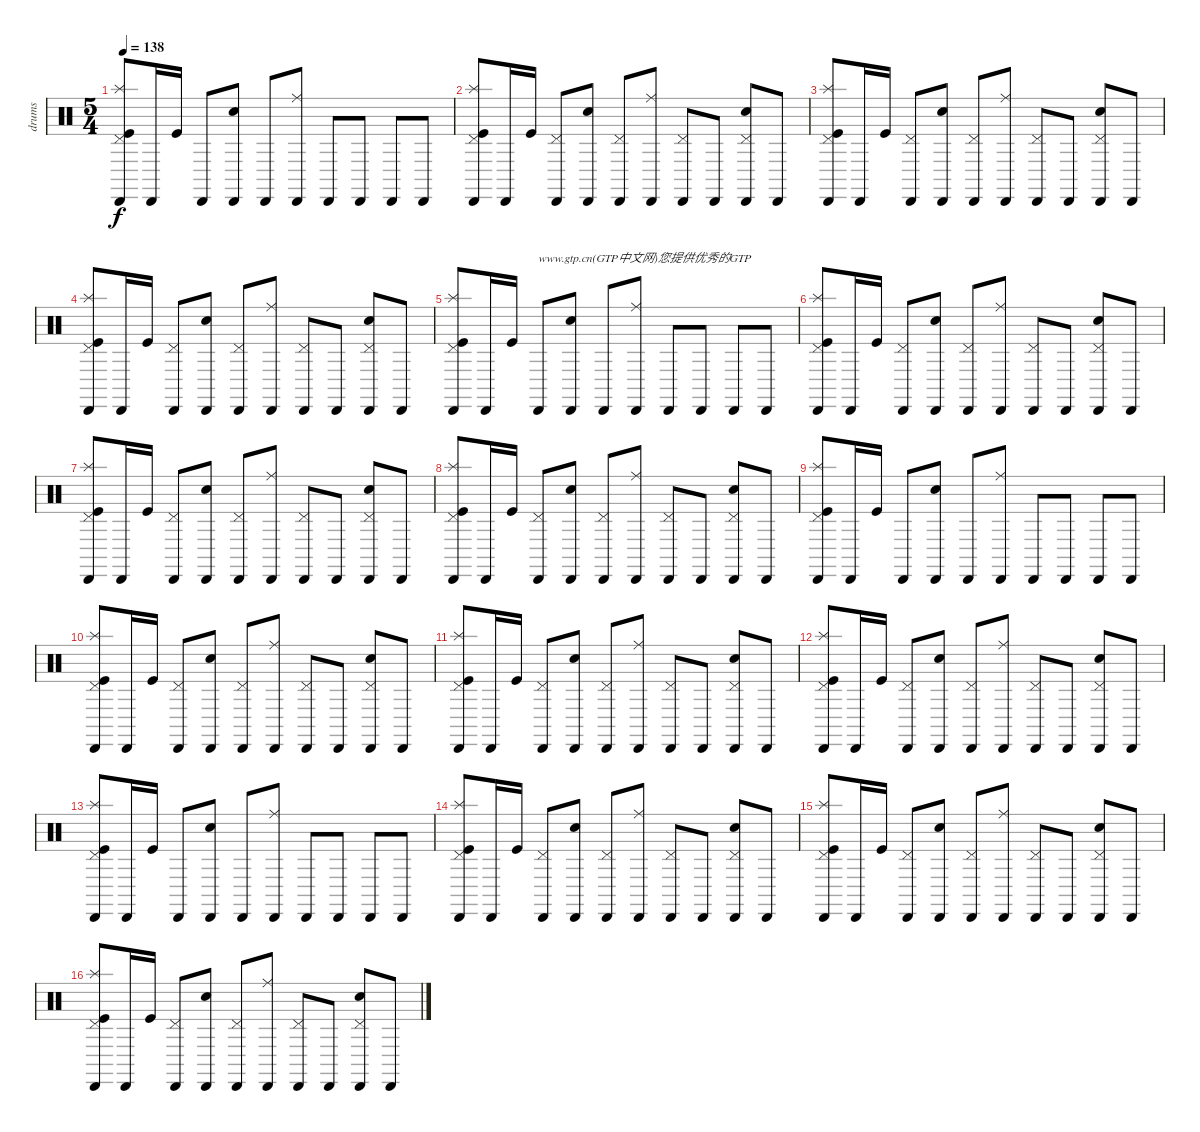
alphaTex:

\track ("drums" "drums") {instrument percussion}
\staff {score}
\articulation defaults
\ts (5 4)
\tempo 138
\clef neutral
\ks c
("Pedal Hi-Hat (hit)" "Splash (hit)" "Kick (hit)" "Cabasa (hit)").8{dy f} "Cabasa (hit)".16 "Kick (hit)".16 "Cabasa (hit)".8 ("Snare (hit) 2" "Cabasa (hit)").8 "Cabasa (hit)".8 ("Ride (middle)" "Cabasa (hit)").8 "Cabasa (hit)".8 "Cabasa (hit)".8 "Cabasa (hit)".8 "Cabasa (hit)".8 |
("Cabasa (hit)" "Kick (hit)" "Pedal Hi-Hat (hit)" "Splash (hit)").8 "Cabasa (hit)".16 "Kick (hit)".16 ("Pedal Hi-Hat (hit)" "Cabasa (hit)").8 ("Snare (hit) 2" "Cabasa (hit)").8 ("Pedal Hi-Hat (hit)" "Cabasa (hit)").8 ("Ride (middle)" "Cabasa (hit)").8 ("Pedal Hi-Hat (hit)" "Cabasa (hit)").8 "Cabasa (hit)".8 ("Snare (hit) 2" "Pedal Hi-Hat (hit)" "Cabasa (hit)").8 "Cabasa (hit)".8 |
("Pedal Hi-Hat (hit)" "Splash (hit)" "Kick (hit)" "Cabasa (hit)").8 "Cabasa (hit)".16 "Kick (hit)".16 ("Pedal Hi-Hat (hit)" "Cabasa (hit)").8 ("Snare (hit) 2" "Cabasa (hit)").8 ("Pedal Hi-Hat (hit)" "Cabasa (hit)").8 ("Ride (middle)" "Cabasa (hit)").8 ("Pedal Hi-Hat (hit)" "Cabasa (hit)").8 "Cabasa (hit)".8 ("Snare (hit) 2" "Pedal Hi-Hat (hit)" "Cabasa (hit)").8 "Cabasa (hit)".8 |
("Kick (hit)" "Pedal Hi-Hat (hit)" "Splash (hit)" "Cabasa (hit)").8 "Cabasa (hit)".16 "Kick (hit)".16 ("Pedal Hi-Hat (hit)" "Cabasa (hit)").8 ("Snare (hit) 2" "Cabasa (hit)").8 ("Pedal Hi-Hat (hit)" "Cabasa (hit)").8 ("Ride (middle)" "Cabasa (hit)").8 ("Pedal Hi-Hat (hit)" "Cabasa (hit)").8 "Cabasa (hit)".8 ("Snare (hit) 2" "Pedal Hi-Hat (hit)" "Cabasa (hit)").8 "Cabasa (hit)".8 |
("Pedal Hi-Hat (hit)" "Splash (hit)" "Kick (hit)" "Cabasa (hit)").8 "Cabasa (hit)".16 "Kick (hit)".16 "Cabasa (hit)".8{txt "www.gtp.cn(GTP中文网)您提供优秀的GTP"} ("Snare (hit) 2" "Cabasa (hit)").8 "Cabasa (hit)".8 ("Ride (middle)" "Cabasa (hit)").8 "Cabasa (hit)".8 "Cabasa (hit)".8 "Cabasa (hit)".8 "Cabasa (hit)".8 |
("Kick (hit)" "Pedal Hi-Hat (hit)" "Splash (hit)" "Cabasa (hit)").8 "Cabasa (hit)".16 "Kick (hit)".16 ("Pedal Hi-Hat (hit)" "Cabasa (hit)").8 ("Snare (hit) 2" "Cabasa (hit)").8 ("Pedal Hi-Hat (hit)" "Cabasa (hit)").8 ("Ride (middle)" "Cabasa (hit)").8 ("Pedal Hi-Hat (hit)" "Cabasa (hit)").8 "Cabasa (hit)".8 ("Snare (hit) 2" "Pedal Hi-Hat (hit)" "Cabasa (hit)").8 "Cabasa (hit)".8 |
("Pedal Hi-Hat (hit)" "Splash (hit)" "Kick (hit)" "Cabasa (hit)").8 "Cabasa (hit)".16 "Kick (hit)".16 ("Pedal Hi-Hat (hit)" "Cabasa (hit)").8 ("Snare (hit) 2" "Cabasa (hit)").8 ("Pedal Hi-Hat (hit)" "Cabasa (hit)").8 ("Ride (middle)" "Cabasa (hit)").8 ("Pedal Hi-Hat (hit)" "Cabasa (hit)").8 "Cabasa (hit)".8 ("Snare (hit) 2" "Pedal Hi-Hat (hit)" "Cabasa (hit)").8 "Cabasa (hit)".8 |
("Kick (hit)" "Pedal Hi-Hat (hit)" "Splash (hit)" "Cabasa (hit)").8 "Cabasa (hit)".16 "Kick (hit)".16 ("Pedal Hi-Hat (hit)" "Cabasa (hit)").8 ("Snare (hit) 2" "Cabasa (hit)").8 ("Pedal Hi-Hat (hit)" "Cabasa (hit)").8 ("Ride (middle)" "Cabasa (hit)").8 ("Pedal Hi-Hat (hit)" "Cabasa (hit)").8 "Cabasa (hit)".8 ("Snare (hit) 2" "Pedal Hi-Hat (hit)" "Cabasa (hit)").8 "Cabasa (hit)".8 |
("Pedal Hi-Hat (hit)" "Splash (hit)" "Kick (hit)" "Cabasa (hit)").8 "Cabasa (hit)".16 "Kick (hit)".16 "Cabasa (hit)".8 ("Snare (hit) 2" "Cabasa (hit)").8 "Cabasa (hit)".8 ("Ride (middle)" "Cabasa (hit)").8 "Cabasa (hit)".8 "Cabasa (hit)".8 "Cabasa (hit)".8 "Cabasa (hit)".8 |
("Kick (hit)" "Pedal Hi-Hat (hit)" "Splash (hit)" "Cabasa (hit)").8 "Cabasa (hit)".16 "Kick (hit)".16 ("Pedal Hi-Hat (hit)" "Cabasa (hit)").8 ("Snare (hit) 2" "Cabasa (hit)").8 ("Pedal Hi-Hat (hit)" "Cabasa (hit)").8 ("Ride (middle)" "Cabasa (hit)").8 ("Pedal Hi-Hat (hit)" "Cabasa (hit)").8 "Cabasa (hit)".8 ("Snare (hit) 2" "Pedal Hi-Hat (hit)" "Cabasa (hit)").8 "Cabasa (hit)".8 |
("Pedal Hi-Hat (hit)" "Splash (hit)" "Kick (hit)" "Cabasa (hit)").8 "Cabasa (hit)".16 "Kick (hit)".16 ("Pedal Hi-Hat (hit)" "Cabasa (hit)").8 ("Snare (hit) 2" "Cabasa (hit)").8 ("Pedal Hi-Hat (hit)" "Cabasa (hit)").8 ("Ride (middle)" "Cabasa (hit)").8 ("Pedal Hi-Hat (hit)" "Cabasa (hit)").8 "Cabasa (hit)".8 ("Snare (hit) 2" "Pedal Hi-Hat (hit)" "Cabasa (hit)").8 "Cabasa (hit)".8 |
("Kick (hit)" "Pedal Hi-Hat (hit)" "Splash (hit)" "Cabasa (hit)").8 "Cabasa (hit)".16 "Kick (hit)".16 ("Pedal Hi-Hat (hit)" "Cabasa (hit)").8 ("Snare (hit) 2" "Cabasa (hit)").8 ("Pedal Hi-Hat (hit)" "Cabasa (hit)").8 ("Ride (middle)" "Cabasa (hit)").8 ("Pedal Hi-Hat (hit)" "Cabasa (hit)").8 "Cabasa (hit)".8 ("Snare (hit) 2" "Pedal Hi-Hat (hit)" "Cabasa (hit)").8 "Cabasa (hit)".8 |
("Pedal Hi-Hat (hit)" "Splash (hit)" "Kick (hit)" "Cabasa (hit)").8 "Cabasa (hit)".16 "Kick (hit)".16 "Cabasa (hit)".8 ("Snare (hit) 2" "Cabasa (hit)").8 "Cabasa (hit)".8 ("Ride (middle)" "Cabasa (hit)").8 "Cabasa (hit)".8 "Cabasa (hit)".8 "Cabasa (hit)".8 "Cabasa (hit)".8 |
("Kick (hit)" "Pedal Hi-Hat (hit)" "Splash (hit)" "Cabasa (hit)").8 "Cabasa (hit)".16 "Kick (hit)".16 ("Pedal Hi-Hat (hit)" "Cabasa (hit)").8 ("Snare (hit) 2" "Cabasa (hit)").8 ("Pedal Hi-Hat (hit)" "Cabasa (hit)").8 ("Ride (middle)" "Cabasa (hit)").8 ("Pedal Hi-Hat (hit)" "Cabasa (hit)").8 "Cabasa (hit)".8 ("Snare (hit) 2" "Pedal Hi-Hat (hit)" "Cabasa (hit)").8 "Cabasa (hit)".8 |
("Pedal Hi-Hat (hit)" "Splash (hit)" "Kick (hit)" "Cabasa (hit)").8 "Cabasa (hit)".16 "Kick (hit)".16 ("Pedal Hi-Hat (hit)" "Cabasa (hit)").8 ("Snare (hit) 2" "Cabasa (hit)").8 ("Pedal Hi-Hat (hit)" "Cabasa (hit)").8 ("Ride (middle)" "Cabasa (hit)").8 ("Pedal Hi-Hat (hit)" "Cabasa (hit)").8 "Cabasa (hit)".8 ("Snare (hit) 2" "Pedal Hi-Hat (hit)" "Cabasa (hit)").8 "Cabasa (hit)".8 |
("Kick (hit)" "Pedal Hi-Hat (hit)" "Splash (hit)" "Cabasa (hit)").8 "Cabasa (hit)".16 "Kick (hit)".16 ("Pedal Hi-Hat (hit)" "Cabasa (hit)").8 ("Snare (hit) 2" "Cabasa (hit)").8 ("Pedal Hi-Hat (hit)" "Cabasa (hit)").8 ("Ride (middle)" "Cabasa (hit)").8 ("Pedal Hi-Hat (hit)" "Cabasa (hit)").8 "Cabasa (hit)".8 ("Snare (hit) 2" "Pedal Hi-Hat (hit)" "Cabasa (hit)").8 "Cabasa (hit)".8
